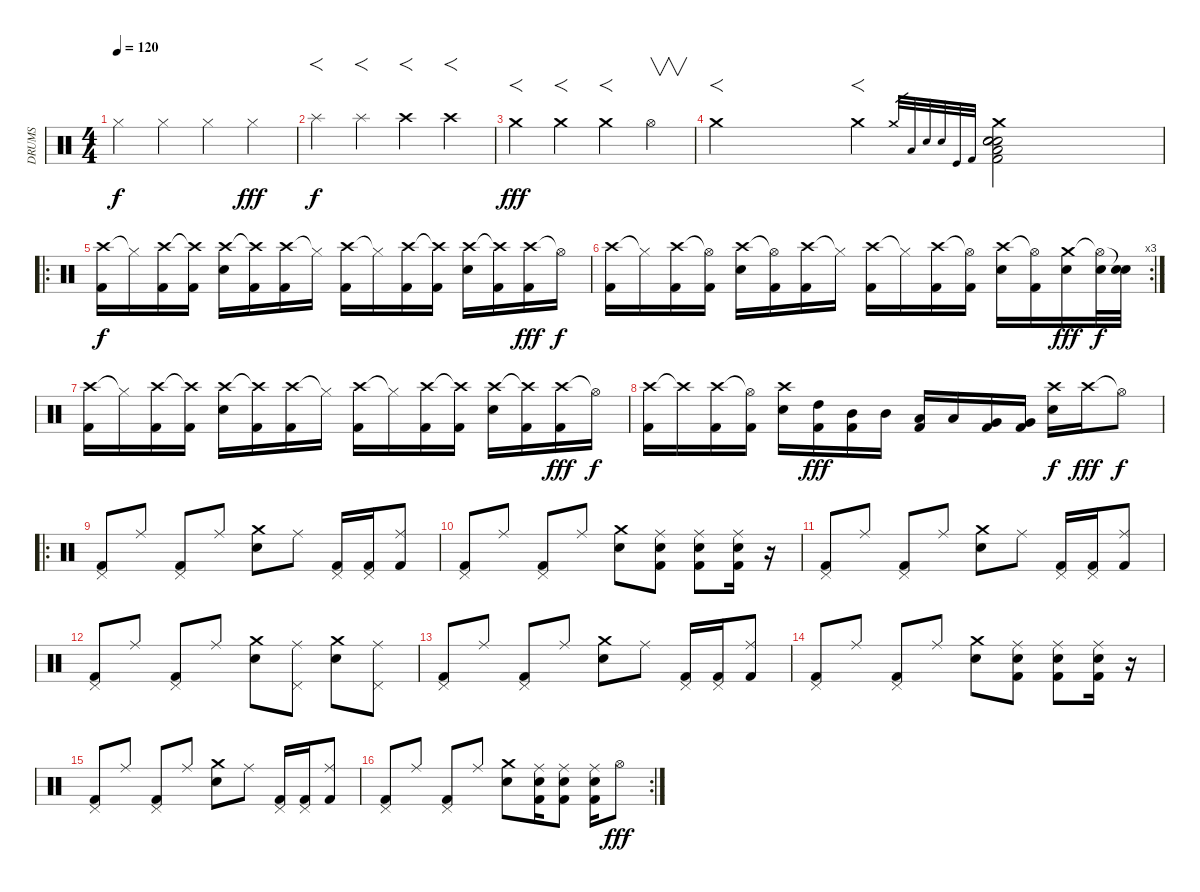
\track ("DRUMS" "DRUMS") {instrument percussion}
\staff {score}
\articulation defaults
\ts (4 4)
\tempo 120
\clef neutral
\ks c "Hi-Hat (closed)".4{dy f} "Hi-Hat (closed)".4 "Hi-Hat (closed)".4 "Hi-Hat (closed)".4{dy fff}
|
"Splash (hit)".4{f dy f} "Splash (hit)".4{f} "Crash high (hit)".4{f} "Crash high (hit)".4{f} |
"Crash medium (hit)".4{f dy fff} "Crash medium (hit)".4{f} "Crash medium (hit)".4{f} "Hi-Hat (open)".4{v} |
"Crash medium (hit)".4{f} "Crash medium (hit)".4{f} "Crash medium (hit)".32{gr} "Low Floor Tom (hit)".32{gr} "Electric Snare (hit)".32{gr} "Electric Snare (hit)".32{gr} "Kick (hit)".32{gr} "Kick (hit) 2".32{gr} ("Crash medium (hit)" "Low Floor Tom (hit)" "Electric Snare (hit)" "Electric Snare (hit)" "Electric Snare (hit)" "Kick (hit) 2").2 |
\ro
("Crash high (hit)" "Kick (hit) 2").16{dy f} "Hi-Hat (closed)"{t}.16 ("Crash high (hit)" "Kick (hit) 2").16 ("Crash high (hit)"{t} "Kick (hit) 2").16 ("Crash high (hit)" "Electric Snare (hit)").16 ("Crash high (hit)"{t} "Kick (hit) 2").16 ("Crash high (hit)" "Kick (hit) 2").16 "Hi-Hat (closed)"{t}.16 ("Crash high (hit)" "Kick (hit) 2").16 "Hi-Hat (closed)"{t}.16 ("Crash high (hit)" "Kick (hit) 2").16 ("Crash high (hit)"{t} "Kick (hit) 2").16 ("Crash high (hit)" "Electric Snare (hit)").16 ("Crash high (hit)"{t} "Kick (hit) 2").16 ("Crash high (hit)" "Kick (hit) 2").16{dy fff} "Hi-Hat (open)"{t}.16{dy f} |
\rc 3
("Crash high (hit)" "Kick (hit) 2").16 "Hi-Hat (closed)"{t}.16 ("Crash high (hit)" "Kick (hit) 2").16 ("Hi-Hat (open)"{t} "Kick (hit) 2").16 ("Crash high (hit)" "Electric Snare (hit)").16 ("Hi-Hat (open)"{t} "Kick (hit) 2").16 ("Crash high (hit)" "Kick (hit) 2").16 "Hi-Hat (closed)"{t}.16 ("Crash high (hit)" "Kick (hit) 2").16 "Hi-Hat (closed)"{t}.16 ("Crash high (hit)" "Kick (hit) 2").16 ("Hi-Hat (open)"{t} "Kick (hit) 2").16 ("Crash high (hit)" "Electric Snare (hit)").16 ("Hi-Hat (open)"{t} "Kick (hit) 2").16 ("Crash medium (hit)" "Electric Snare (hit)").16{dy fff} ("Hi-Hat (open)"{t} "Electric Snare (hit)").32{dy f} ("Snare (hit)"{t} "Electric Snare (hit)").32 |
("Crash high (hit)" "Kick (hit) 2").16 "Hi-Hat (closed)"{t}.16 ("Crash high (hit)" "Kick (hit) 2").16 ("Crash high (hit)"{t} "Kick (hit) 2").16 ("Crash high (hit)" "Electric Snare (hit)").16 ("Crash high (hit)"{t} "Kick (hit) 2").16 ("Crash high (hit)" "Kick (hit) 2").16 "Hi-Hat (closed)"{t}.16 ("Crash high (hit)" "Kick (hit) 2").16 "Hi-Hat (closed)"{t}.16 ("Crash high (hit)" "Kick (hit) 2").16 ("Crash high (hit)"{t} "Kick (hit) 2").16 ("Crash high (hit)" "Electric Snare (hit)").16 ("Crash high (hit)"{t} "Kick (hit) 2").16 ("Crash high (hit)" "Kick (hit) 2").16{dy fff} "Hi-Hat (open)"{t}.16{dy f} |
("Crash high (hit)" "Kick (hit) 2").16 "Crash high (hit)"{t}.16 ("Crash high (hit)" "Kick (hit) 2").16 ("Hi-Hat (open)"{t} "Kick (hit) 2").16 ("Crash high (hit)" "Electric Snare (hit)").16 ("High Tom (hit)" "Kick (hit) 2").16{dy fff} ("Mid Tom (hit)" "Kick (hit) 2").16 "Mid Tom (hit)".16 ("Low Tom (hit)" "Kick (hit) 2").16 "Low Tom (hit)".16 ("Very Low Tom (hit)" "Kick (hit) 2").16 ("Very Low Tom (hit)" "Kick (hit) 2").16 ("Crash high (hit)" "Electric Snare (hit)").16{dy f} "Crash high (hit)".16{dy fff} "Hi-Hat (open)"{t}.8{dy f} |
\ro
("Kick (hit) 2" "Pedal Hi-Hat (hit)").8 "Ride (middle)".8 ("Kick (hit) 2" "Pedal Hi-Hat (hit)").8 "Ride (middle)".8 ("Crash medium (hit)" "Electric Snare (hit)").8 "Ride (middle)".8 ("Kick (hit) 2" "Pedal Hi-Hat (hit)").16 ("Kick (hit) 2" "Pedal Hi-Hat (hit)").16 ("Kick (hit) 2" "Ride (middle)").8 |
("Kick (hit) 2" "Pedal Hi-Hat (hit)").8 "Ride (middle)".8 ("Kick (hit) 2" "Pedal Hi-Hat (hit)").8 "Ride (middle)".8 ("Crash medium (hit)" "Electric Snare (hit)").8 ("Ride (middle)" "Electric Snare (hit)" "Kick (hit) 2").8 ("Ride (middle)" "Electric Snare (hit)" "Kick (hit) 2").8 ("Ride (middle)" "Electric Snare (hit)" "Kick (hit) 2").16 r.16 |
("Kick (hit) 2" "Pedal Hi-Hat (hit)").8 "Ride (middle)".8 ("Kick (hit) 2" "Pedal Hi-Hat (hit)").8 "Ride (middle)".8 ("Crash medium (hit)" "Electric Snare (hit)").8 "Ride (middle)".8 ("Kick (hit) 2" "Pedal Hi-Hat (hit)").16 ("Kick (hit) 2" "Pedal Hi-Hat (hit)").16 ("Ride (middle)" "Kick (hit) 2").8 |
("Kick (hit) 2" "Pedal Hi-Hat (hit)").8 "Ride (middle)".8 ("Kick (hit) 2" "Pedal Hi-Hat (hit)").8 "Ride (middle)".8 ("Crash medium (hit)" "Electric Snare (hit)").8 ("Ride (middle)" "Pedal Hi-Hat (hit)").8 ("Crash medium (hit)" "Electric Snare (hit)").8 ("Ride (middle)" "Pedal Hi-Hat (hit)").8 |
("Kick (hit) 2" "Pedal Hi-Hat (hit)").8 "Ride (middle)".8 ("Kick (hit) 2" "Pedal Hi-Hat (hit)").8 "Ride (middle)".8 ("Crash medium (hit)" "Electric Snare (hit)").8 "Ride (middle)".8 ("Kick (hit) 2" "Pedal Hi-Hat (hit)").16 ("Kick (hit) 2" "Pedal Hi-Hat (hit)").16 ("Kick (hit) 2" "Ride (middle)").8 |
("Kick (hit) 2" "Pedal Hi-Hat (hit)").8 "Ride (middle)".8 ("Kick (hit) 2" "Pedal Hi-Hat (hit)").8 "Ride (middle)".8 ("Crash medium (hit)" "Electric Snare (hit)").8 ("Ride (middle)" "Electric Snare (hit)" "Kick (hit) 2").8 ("Ride (middle)" "Electric Snare (hit)" "Kick (hit) 2").8 ("Ride (middle)" "Electric Snare (hit)" "Kick (hit) 2").16 r.16 |
("Kick (hit) 2" "Pedal Hi-Hat (hit)").8 "Ride (middle)".8 ("Kick (hit) 2" "Pedal Hi-Hat (hit)").8 "Ride (middle)".8 ("Crash medium (hit)" "Electric Snare (hit)").8 "Ride (middle)".8 ("Kick (hit) 2" "Pedal Hi-Hat (hit)").16 ("Kick (hit) 2" "Pedal Hi-Hat (hit)").16 ("Kick (hit) 2" "Ride (middle)").8 |
\rc 2
("Kick (hit) 2" "Pedal Hi-Hat (hit)").8 "Ride (middle)".8 ("Kick (hit) 2" "Pedal Hi-Hat (hit)").8 "Ride (middle)".8 ("Crash medium (hit)" "Electric Snare (hit)").8 ("Ride (middle)" "Electric Snare (hit)" "Kick (hit) 2").16 ("Ride (middle)" "Electric Snare (hit)" "Kick (hit) 2").8 ("Ride (middle)" "Electric Snare (hit)" "Kick (hit) 2").16 "Hi-Hat (open)".8{dy fff}
